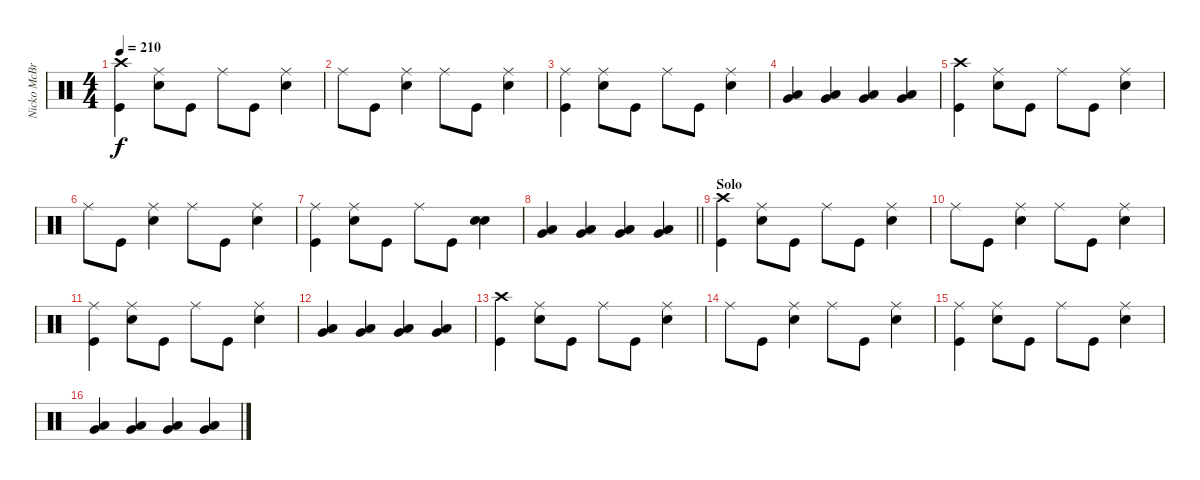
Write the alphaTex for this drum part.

\track ("Nicko McBrain" "Nicko McBr") {instrument percussion}
\staff {score}
\articulation defaults
\ts (4 4)
\tempo 210
\clef neutral
\ks c
("Crash high (hit)" "Kick (hit)").4{dy f} ("Ride (middle)" "Snare (hit) 2").8 "Kick (hit)".8 "Ride (middle)".8 "Kick (hit)".8 ("Ride (middle)" "Snare (hit) 2").4 |
"Ride (middle)".8 "Kick (hit)".8 ("Ride (middle)" "Snare (hit) 2").4 "Ride (middle)".8 "Kick (hit)".8 ("Ride (middle)" "Snare (hit) 2").4 |
("Ride (middle)" "Kick (hit)").4 ("Ride (middle)" "Snare (hit) 2").8 "Kick (hit)".8 "Ride (middle)".8 "Kick (hit)".8 ("Ride (middle)" "Snare (hit) 2").4 |
("Very Low Tom (hit)" "Low Floor Tom (hit)").4 ("Very Low Tom (hit)" "Low Floor Tom (hit)").4 ("Low Tom (hit)" "Very Low Tom (hit)").4 ("Low Tom (hit)" "Very Low Tom (hit)").4 |
("Crash high (hit)" "Kick (hit)").4 ("Ride (middle)" "Snare (hit) 2").8 "Kick (hit)".8 "Ride (middle)".8 "Kick (hit)".8 ("Ride (middle)" "Snare (hit) 2").4 |
"Ride (middle)".8 "Kick (hit)".8 ("Ride (middle)" "Snare (hit) 2").4 "Ride (middle)".8 "Kick (hit)".8 ("Ride (middle)" "Snare (hit) 2").4 |
("Ride (middle)" "Kick (hit)").4 ("Ride (middle)" "Snare (hit) 2").8 "Kick (hit)".8 "Ride (middle)".8 "Kick (hit)".8 ("Snare (hit) 2" "Snare (hit) 2").4 |
\barLineRight lightlight
("Low Tom (hit)" "Very Low Tom (hit)").4 ("Low Tom (hit)" "Very Low Tom (hit)").4 ("Very Low Tom (hit)" "Low Floor Tom (hit)").4 ("Very Low Tom (hit)" "Low Floor Tom (hit)").4 |
\section ("" "Solo")
("Crash high (hit)" "Kick (hit)").4 ("Ride (middle)" "Snare (hit) 2").8 "Kick (hit)".8 "Ride (middle)".8 "Kick (hit)".8 ("Ride (middle)" "Snare (hit) 2").4 |
"Ride (middle)".8 "Kick (hit)".8 ("Ride (middle)" "Snare (hit) 2").4 "Ride (middle)".8 "Kick (hit)".8 ("Ride (middle)" "Snare (hit) 2").4 |
("Ride (middle)" "Kick (hit)").4 ("Ride (middle)" "Snare (hit) 2").8 "Kick (hit)".8 "Ride (middle)".8 "Kick (hit)".8 ("Ride (middle)" "Snare (hit) 2").4 |
("Low Tom (hit)" "Very Low Tom (hit)").4 ("Low Tom (hit)" "Very Low Tom (hit)").4 ("Very Low Tom (hit)" "Low Floor Tom (hit)").4 ("Very Low Tom (hit)" "Low Floor Tom (hit)").4 |
("Crash high (hit)" "Kick (hit)").4 ("Ride (middle)" "Snare (hit) 2").8 "Kick (hit)".8 "Ride (middle)".8 "Kick (hit)".8 ("Ride (middle)" "Snare (hit) 2").4 |
"Ride (middle)".8 "Kick (hit)".8 ("Ride (middle)" "Snare (hit) 2").4 "Ride (middle)".8 "Kick (hit)".8 ("Ride (middle)" "Snare (hit) 2").4 |
("Ride (middle)" "Kick (hit)").4 ("Ride (middle)" "Snare (hit) 2").8 "Kick (hit)".8 "Ride (middle)".8 "Kick (hit)".8 ("Ride (middle)" "Snare (hit) 2").4 |
("Low Tom (hit)" "Very Low Tom (hit)").4 ("Low Tom (hit)" "Very Low Tom (hit)").4 ("Very Low Tom (hit)" "Low Floor Tom (hit)").4 ("Very Low Tom (hit)" "Low Floor Tom (hit)").4
